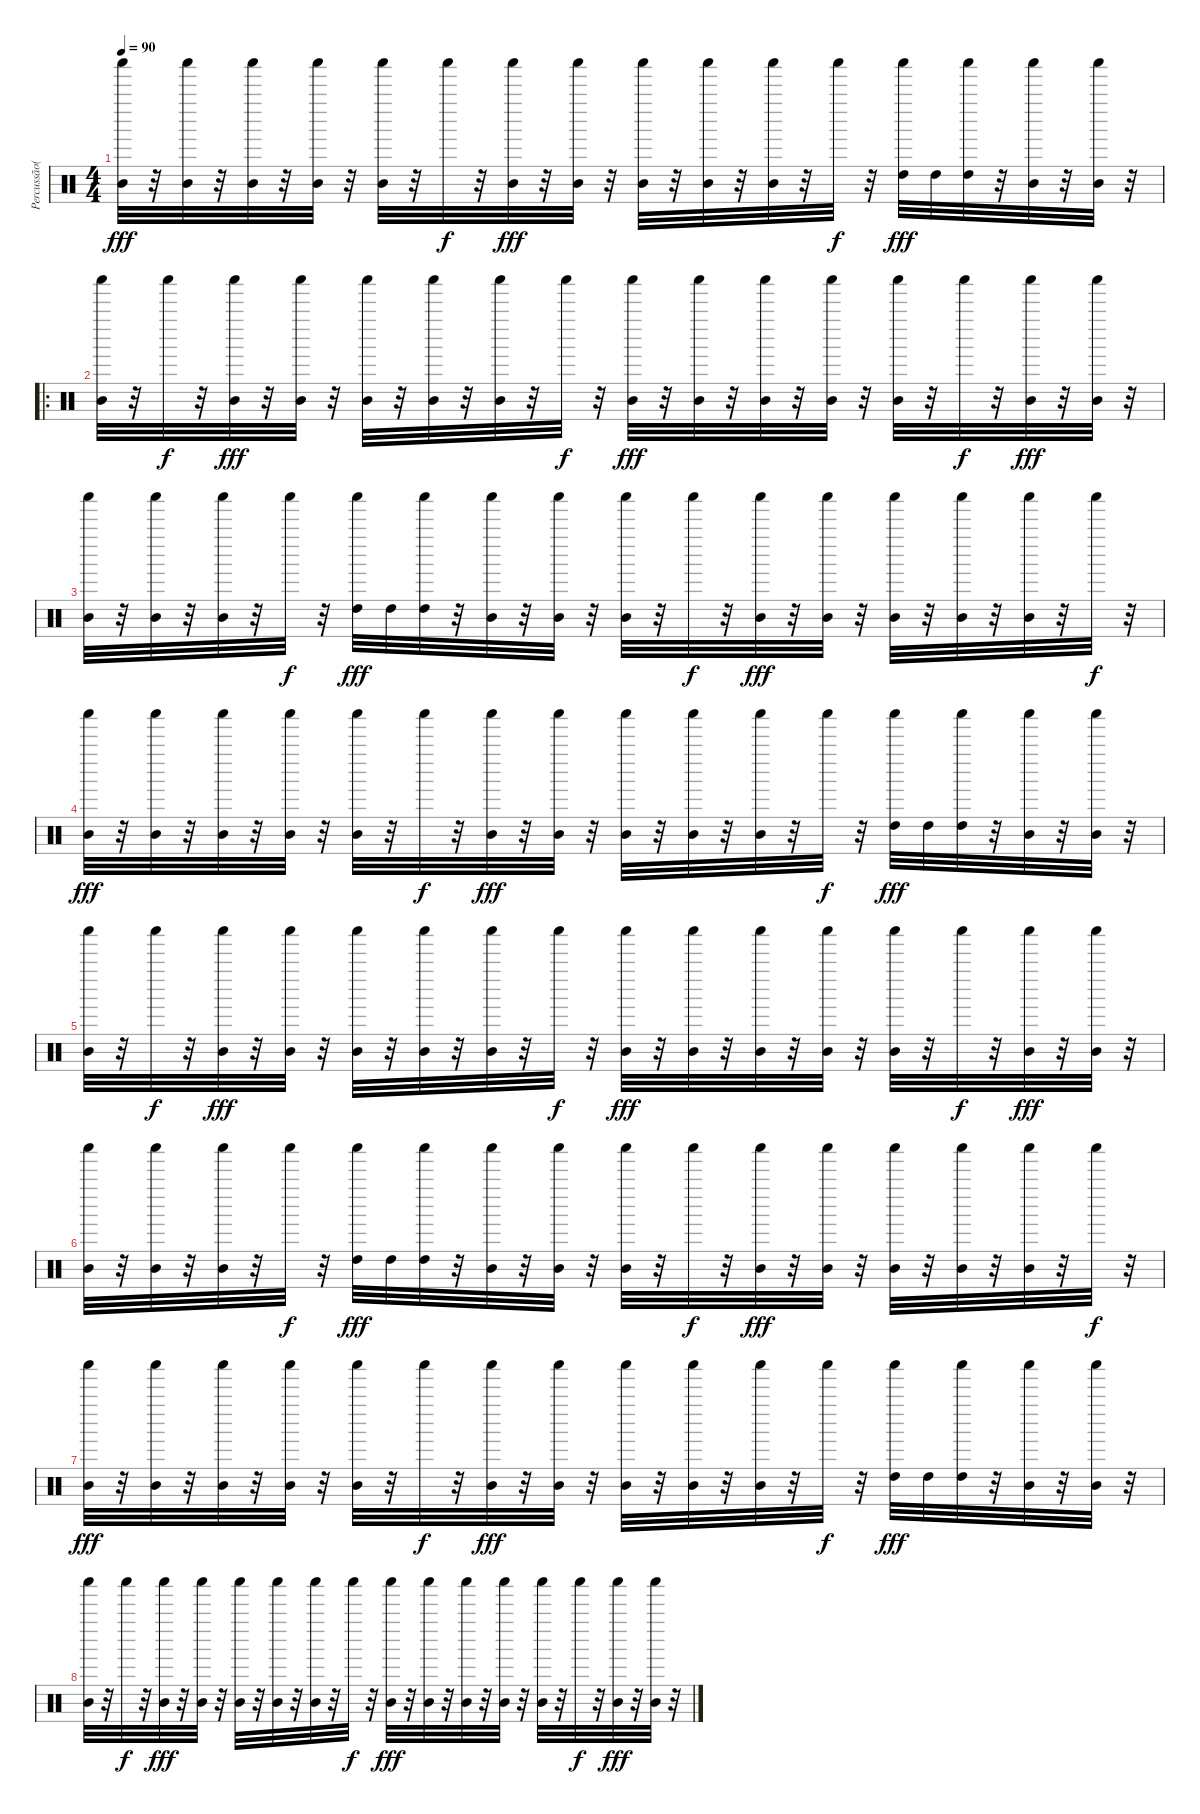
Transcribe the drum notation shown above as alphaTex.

\track ("Percussão(Percussion)-1" "Percussão(") {instrument percussion}
\staff {score}
\articulation defaults
\ts (4 4)
\tempo 90
\clef neutral
\ks c
("Mid Tom (hit)" "Shaker (hit)").32{dy fff} r.32 ("Mid Tom (hit)" "Shaker (hit)").32 r.32 ("Mid Tom (hit)" "Shaker (hit)").32 r.32 ("Mid Tom (hit)" "Shaker (hit)").32 r.32 ("Mid Tom (hit)" "Shaker (hit)").32 r.32 "Shaker (hit)".32{dy f} r.32 ("Mid Tom (hit)" "Shaker (hit)").32{dy fff} r.32 ("Mid Tom (hit)" "Shaker (hit)").32 r.32 ("Mid Tom (hit)" "Shaker (hit)").32 r.32 ("Mid Tom (hit)" "Shaker (hit)").32 r.32 ("Mid Tom (hit)" "Shaker (hit)").32 r.32 "Shaker (hit)".32{dy f} r.32 ("High Tom (hit)" "Shaker (hit)").32{dy fff} "High Tom (hit)".32 ("High Tom (hit)" "Shaker (hit)").32 r.32 ("Mid Tom (hit)" "Shaker (hit)").32 r.32 ("Mid Tom (hit)" "Shaker (hit)").32 r.32 |
\ro
("Mid Tom (hit)" "Shaker (hit)").32 r.32 "Shaker (hit)".32{dy f} r.32 ("Mid Tom (hit)" "Shaker (hit)").32{dy fff} r.32 ("Mid Tom (hit)" "Shaker (hit)").32 r.32 ("Mid Tom (hit)" "Shaker (hit)").32 r.32 ("Mid Tom (hit)" "Shaker (hit)").32 r.32 ("Mid Tom (hit)" "Shaker (hit)").32 r.32 "Shaker (hit)".32{dy f} r.32 ("Mid Tom (hit)" "Shaker (hit)").32{dy fff} r.32 ("Mid Tom (hit)" "Shaker (hit)").32 r.32 ("Mid Tom (hit)" "Shaker (hit)").32 r.32 ("Mid Tom (hit)" "Shaker (hit)").32 r.32 ("Mid Tom (hit)" "Shaker (hit)").32 r.32 "Shaker (hit)".32{dy f} r.32 ("Mid Tom (hit)" "Shaker (hit)").32{dy fff} r.32 ("Mid Tom (hit)" "Shaker (hit)").32 r.32 |
("Mid Tom (hit)" "Shaker (hit)").32 r.32 ("Mid Tom (hit)" "Shaker (hit)").32 r.32 ("Mid Tom (hit)" "Shaker (hit)").32 r.32 "Shaker (hit)".32{dy f} r.32 ("High Tom (hit)" "Shaker (hit)").32{dy fff} "High Tom (hit)".32 ("High Tom (hit)" "Shaker (hit)").32 r.32 ("Mid Tom (hit)" "Shaker (hit)").32 r.32 ("Mid Tom (hit)" "Shaker (hit)").32 r.32 ("Mid Tom (hit)" "Shaker (hit)").32 r.32 "Shaker (hit)".32{dy f} r.32 ("Mid Tom (hit)" "Shaker (hit)").32{dy fff} r.32 ("Mid Tom (hit)" "Shaker (hit)").32 r.32 ("Mid Tom (hit)" "Shaker (hit)").32 r.32 ("Mid Tom (hit)" "Shaker (hit)").32 r.32 ("Mid Tom (hit)" "Shaker (hit)").32 r.32 "Shaker (hit)".32{dy f} r.32 |
("Mid Tom (hit)" "Shaker (hit)").32{dy fff} r.32 ("Mid Tom (hit)" "Shaker (hit)").32 r.32 ("Mid Tom (hit)" "Shaker (hit)").32 r.32 ("Mid Tom (hit)" "Shaker (hit)").32 r.32 ("Mid Tom (hit)" "Shaker (hit)").32 r.32 "Shaker (hit)".32{dy f} r.32 ("Mid Tom (hit)" "Shaker (hit)").32{dy fff} r.32 ("Mid Tom (hit)" "Shaker (hit)").32 r.32 ("Mid Tom (hit)" "Shaker (hit)").32 r.32 ("Mid Tom (hit)" "Shaker (hit)").32 r.32 ("Mid Tom (hit)" "Shaker (hit)").32 r.32 "Shaker (hit)".32{dy f} r.32 ("High Tom (hit)" "Shaker (hit)").32{dy fff} "High Tom (hit)".32 ("High Tom (hit)" "Shaker (hit)").32 r.32 ("Mid Tom (hit)" "Shaker (hit)").32 r.32 ("Mid Tom (hit)" "Shaker (hit)").32 r.32 |
("Mid Tom (hit)" "Shaker (hit)").32 r.32 "Shaker (hit)".32{dy f} r.32 ("Mid Tom (hit)" "Shaker (hit)").32{dy fff} r.32 ("Mid Tom (hit)" "Shaker (hit)").32 r.32 ("Mid Tom (hit)" "Shaker (hit)").32 r.32 ("Mid Tom (hit)" "Shaker (hit)").32 r.32 ("Mid Tom (hit)" "Shaker (hit)").32 r.32 "Shaker (hit)".32{dy f} r.32 ("Mid Tom (hit)" "Shaker (hit)").32{dy fff} r.32 ("Mid Tom (hit)" "Shaker (hit)").32 r.32 ("Mid Tom (hit)" "Shaker (hit)").32 r.32 ("Mid Tom (hit)" "Shaker (hit)").32 r.32 ("Mid Tom (hit)" "Shaker (hit)").32 r.32 "Shaker (hit)".32{dy f} r.32 ("Mid Tom (hit)" "Shaker (hit)").32{dy fff} r.32 ("Mid Tom (hit)" "Shaker (hit)").32 r.32 |
("Mid Tom (hit)" "Shaker (hit)").32 r.32 ("Mid Tom (hit)" "Shaker (hit)").32 r.32 ("Mid Tom (hit)" "Shaker (hit)").32 r.32 "Shaker (hit)".32{dy f} r.32 ("High Tom (hit)" "Shaker (hit)").32{dy fff} "High Tom (hit)".32 ("High Tom (hit)" "Shaker (hit)").32 r.32 ("Mid Tom (hit)" "Shaker (hit)").32 r.32 ("Mid Tom (hit)" "Shaker (hit)").32 r.32 ("Mid Tom (hit)" "Shaker (hit)").32 r.32 "Shaker (hit)".32{dy f} r.32 ("Mid Tom (hit)" "Shaker (hit)").32{dy fff} r.32 ("Mid Tom (hit)" "Shaker (hit)").32 r.32 ("Mid Tom (hit)" "Shaker (hit)").32 r.32 ("Mid Tom (hit)" "Shaker (hit)").32 r.32 ("Mid Tom (hit)" "Shaker (hit)").32 r.32 "Shaker (hit)".32{dy f} r.32 |
("Mid Tom (hit)" "Shaker (hit)").32{dy fff} r.32 ("Mid Tom (hit)" "Shaker (hit)").32 r.32 ("Mid Tom (hit)" "Shaker (hit)").32 r.32 ("Mid Tom (hit)" "Shaker (hit)").32 r.32 ("Mid Tom (hit)" "Shaker (hit)").32 r.32 "Shaker (hit)".32{dy f} r.32 ("Mid Tom (hit)" "Shaker (hit)").32{dy fff} r.32 ("Mid Tom (hit)" "Shaker (hit)").32 r.32 ("Mid Tom (hit)" "Shaker (hit)").32 r.32 ("Mid Tom (hit)" "Shaker (hit)").32 r.32 ("Mid Tom (hit)" "Shaker (hit)").32 r.32 "Shaker (hit)".32{dy f} r.32 ("High Tom (hit)" "Shaker (hit)").32{dy fff} "High Tom (hit)".32 ("High Tom (hit)" "Shaker (hit)").32 r.32 ("Mid Tom (hit)" "Shaker (hit)").32 r.32 ("Mid Tom (hit)" "Shaker (hit)").32 r.32 |
("Mid Tom (hit)" "Shaker (hit)").32 r.32 "Shaker (hit)".32{dy f} r.32 ("Mid Tom (hit)" "Shaker (hit)").32{dy fff} r.32 ("Mid Tom (hit)" "Shaker (hit)").32 r.32 ("Mid Tom (hit)" "Shaker (hit)").32 r.32 ("Mid Tom (hit)" "Shaker (hit)").32 r.32 ("Mid Tom (hit)" "Shaker (hit)").32 r.32 "Shaker (hit)".32{dy f} r.32 ("Mid Tom (hit)" "Shaker (hit)").32{dy fff} r.32 ("Mid Tom (hit)" "Shaker (hit)").32 r.32 ("Mid Tom (hit)" "Shaker (hit)").32 r.32 ("Mid Tom (hit)" "Shaker (hit)").32 r.32 ("Mid Tom (hit)" "Shaker (hit)").32 r.32 "Shaker (hit)".32{dy f} r.32 ("Mid Tom (hit)" "Shaker (hit)").32{dy fff} r.32 ("Mid Tom (hit)" "Shaker (hit)").32 r.32
